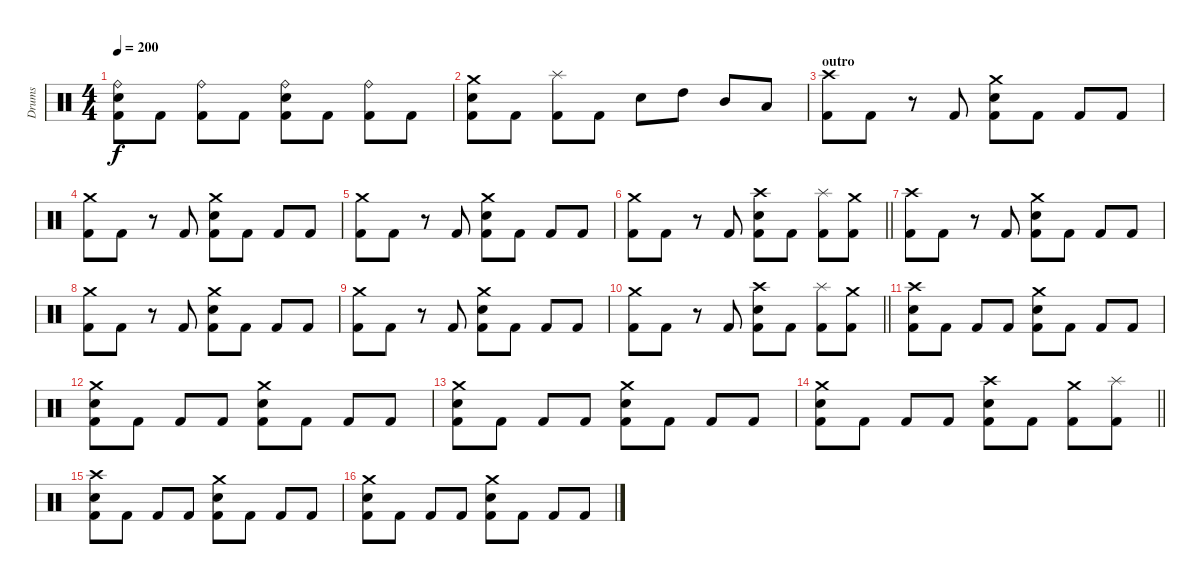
\track ("Drums" "Drums") {instrument percussion}
\staff {score}
\articulation defaults
\ts (4 4)
\tempo 200
\clef neutral
\ks c
("Ride (bell)" "Electric Snare (hit)" "Kick (hit) 2").8{dy f} "Kick (hit) 2".8 ("Ride (bell)" "Kick (hit) 2").8 "Kick (hit) 2".8 ("Ride (bell)" "Electric Snare (hit)" "Kick (hit) 2").8 "Kick (hit) 2".8 ("Ride (bell)" "Kick (hit) 2").8 "Kick (hit) 2".8 |
("Crash medium (hit)" "Electric Snare (hit)" "Kick (hit) 2").8 "Kick (hit) 2".8 ("Splash (hit)" "Kick (hit) 2").8 "Kick (hit) 2".8 "Electric Snare (hit)".8 "High Tom (hit)".8 "Mid Tom (hit)".8 "Low Tom (hit)".8 |
\section ("" "outro")
("Crash high (hit)" "Kick (hit) 2").8 "Kick (hit) 2".8 r.8 "Kick (hit) 2".8 ("Crash medium (hit)" "Electric Snare (hit)" "Kick (hit) 2").8 "Kick (hit) 2".8 "Kick (hit) 2".8 "Kick (hit) 2".8 |
("Crash medium (hit)" "Kick (hit) 2").8 "Kick (hit) 2".8 r.8 "Kick (hit) 2".8 ("Crash medium (hit)" "Electric Snare (hit)" "Kick (hit) 2").8 "Kick (hit) 2".8 "Kick (hit) 2".8 "Kick (hit) 2".8 |
("Crash medium (hit)" "Kick (hit) 2").8 "Kick (hit) 2".8 r.8 "Kick (hit) 2".8 ("Crash medium (hit)" "Electric Snare (hit)" "Kick (hit) 2").8 "Kick (hit) 2".8 "Kick (hit) 2".8 "Kick (hit) 2".8 |
\barLineRight lightlight
("Crash medium (hit)" "Kick (hit) 2").8 "Kick (hit) 2".8 r.8 "Kick (hit) 2".8 ("Crash high (hit)" "Electric Snare (hit)" "Kick (hit) 2").8 "Kick (hit) 2".8 ("Splash (hit)" "Kick (hit) 2").8 ("Crash medium (hit)" "Kick (hit) 2").8 |
("Crash high (hit)" "Kick (hit) 2").8 "Kick (hit) 2".8 r.8 "Kick (hit) 2".8 ("Crash medium (hit)" "Electric Snare (hit)" "Kick (hit) 2").8 "Kick (hit) 2".8 "Kick (hit) 2".8 "Kick (hit) 2".8 |
("Crash medium (hit)" "Kick (hit) 2").8 "Kick (hit) 2".8 r.8 "Kick (hit) 2".8 ("Crash medium (hit)" "Electric Snare (hit)" "Kick (hit) 2").8 "Kick (hit) 2".8 "Kick (hit) 2".8 "Kick (hit) 2".8 |
("Crash medium (hit)" "Kick (hit) 2").8 "Kick (hit) 2".8 r.8 "Kick (hit) 2".8 ("Crash medium (hit)" "Electric Snare (hit)" "Kick (hit) 2").8 "Kick (hit) 2".8 "Kick (hit) 2".8 "Kick (hit) 2".8 |
\barLineRight lightlight
("Crash medium (hit)" "Kick (hit) 2").8 "Kick (hit) 2".8 r.8 "Kick (hit) 2".8 ("Crash high (hit)" "Electric Snare (hit)" "Kick (hit) 2").8 "Kick (hit) 2".8 ("Splash (hit)" "Kick (hit) 2").8 ("Crash medium (hit)" "Kick (hit) 2").8 |
("Crash high (hit)" "Electric Snare (hit)" "Kick (hit) 2").8 "Kick (hit) 2".8 "Kick (hit) 2".8 "Kick (hit) 2".8 ("Crash medium (hit)" "Electric Snare (hit)" "Kick (hit) 2").8 "Kick (hit) 2".8 "Kick (hit) 2".8 "Kick (hit) 2".8 |
("Crash medium (hit)" "Electric Snare (hit)" "Kick (hit) 2").8 "Kick (hit) 2".8 "Kick (hit) 2".8 "Kick (hit) 2".8 ("Crash medium (hit)" "Electric Snare (hit)" "Kick (hit) 2").8 "Kick (hit) 2".8 "Kick (hit) 2".8 "Kick (hit) 2".8 |
("Crash medium (hit)" "Electric Snare (hit)" "Kick (hit) 2").8 "Kick (hit) 2".8 "Kick (hit) 2".8 "Kick (hit) 2".8 ("Crash medium (hit)" "Electric Snare (hit)" "Kick (hit) 2").8 "Kick (hit) 2".8 "Kick (hit) 2".8 "Kick (hit) 2".8 |
\barLineRight lightlight
("Crash medium (hit)" "Electric Snare (hit)" "Kick (hit) 2").8 "Kick (hit) 2".8 "Kick (hit) 2".8 "Kick (hit) 2".8 ("Crash high (hit)" "Electric Snare (hit)" "Kick (hit) 2").8 "Kick (hit) 2".8 ("Crash medium (hit)" "Kick (hit) 2").8 ("Splash (hit)" "Kick (hit) 2").8 |
("Crash high (hit)" "Electric Snare (hit)" "Kick (hit) 2").8 "Kick (hit) 2".8 "Kick (hit) 2".8 "Kick (hit) 2".8 ("Crash medium (hit)" "Electric Snare (hit)" "Kick (hit) 2").8 "Kick (hit) 2".8 "Kick (hit) 2".8 "Kick (hit) 2".8 |
("Crash medium (hit)" "Electric Snare (hit)" "Kick (hit) 2").8 "Kick (hit) 2".8 "Kick (hit) 2".8 "Kick (hit) 2".8 ("Crash medium (hit)" "Electric Snare (hit)" "Kick (hit) 2").8 "Kick (hit) 2".8 "Kick (hit) 2".8 "Kick (hit) 2".8
